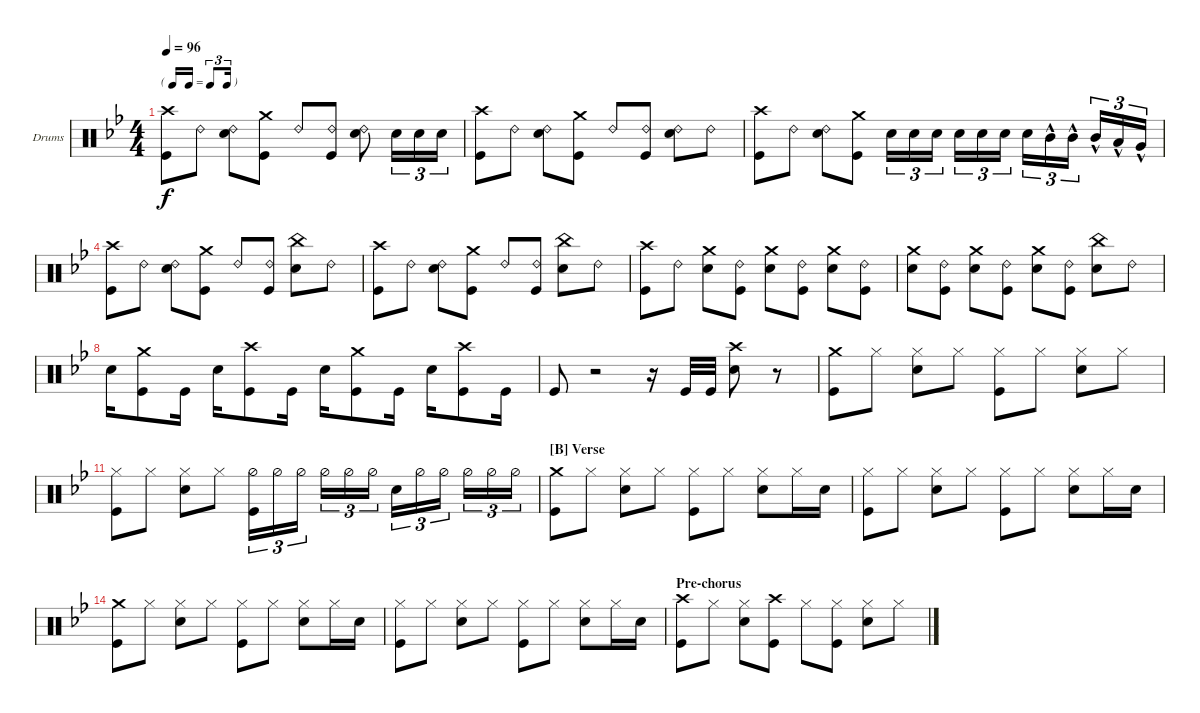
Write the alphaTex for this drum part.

\bracketExtendMode nobrackets
\firstSystemTrackNameOrientation horizontal
\otherSystemsTrackNameOrientation horizontal
\defaultBarNumberDisplay FirstOfSystem
\track ("Randy Castillo" "Drums") {instrument percussion}
\staff {score}
\articulation defaults
\ts (4 4)
\tf triplet16th
\tempo 96
\clef neutral
\scale
0.501966
\ks bb
("Kick (hit)" "Crash high (hit)").8{dy f} "Ride (bell) 2".8 ("Snare (hit) 2" "Ride (bell) 2").8 ("Kick (hit)" "Crash medium (hit)").8 "Ride (bell) 2".8 ("Kick (hit)" "Ride (bell) 2").8 ("Snare (hit) 2" "Ride (bell) 2").8 "Snare (hit) 2".16{tu (3 2)} "Snare (hit) 2".16{tu (3 2)} "Snare (hit) 2".16{tu (3 2)} |
\scale
0.502214 ("Kick (hit)" "Crash high (hit)").8 "Ride (bell) 2".8 ("Snare (hit) 2" "Ride (bell) 2").8 ("Kick (hit)" "Crash medium (hit)").8 "Ride (bell) 2".8 ("Kick (hit)" "Ride (bell) 2").8 ("Snare (hit) 2" "Ride (bell) 2").8 "Ride (bell) 2".8 |
\scale
0.495879 ("Kick (hit)" "Crash high (hit)").8 "Ride (bell) 2".8 ("Snare (hit) 2" "Ride (bell) 2").8 ("Kick (hit)" "Crash medium (hit)").8 "Snare (hit) 2".16{tu (3 2)} "Snare (hit) 2".16{tu (3 2)} "Snare (hit) 2".16{tu (3 2)} "Snare (hit) 2".16{tu (3 2)} "Snare (hit) 2".16{tu (3 2)} "Snare (hit) 2".16{tu (3 2)} "Snare (hit) 2".16{tu (3 2)} "Mid Tom (hit)"{hac}.16{tu (3 2)} "Mid Tom (hit)"{hac}.16{tu (3 2)} "Mid Tom (hit)"{hac}.16{tu (3 2)} "Low Tom (hit)"{hac}.16{tu (3 2)} "Very Low Tom (hit)"{hac}.16{tu (3 2)} |
("Kick (hit)" "Crash high (hit)").8 "Ride (bell) 2".8 ("Snare (hit) 2" "Ride (bell) 2").8 ("Kick (hit)" "Crash medium (hit)").8 "Ride (bell) 2".8 ("Kick (hit)" "Ride (bell) 2").8 ("Snare (hit) 2" "China (hit)").8 "Ride (bell) 2".8 |
("Kick (hit)" "Crash high (hit)").8 "Ride (bell) 2".8 ("Snare (hit) 2" "Ride (bell) 2").8 ("Kick (hit)" "Crash medium (hit)").8 "Ride (bell) 2".8 ("Kick (hit)" "Ride (bell) 2").8 ("Snare (hit) 2" "China (hit)").8 "Ride (bell) 2".8 |
("Kick (hit)" "Crash high (hit)").8 "Ride (bell) 2".8 ("Snare (hit) 2" "Crash medium (hit)").8 ("Kick (hit)" "Ride (bell) 2").8 ("Snare (hit) 2" "Crash medium (hit)").8 ("Kick (hit)" "Ride (bell) 2").8 ("Snare (hit) 2" "Crash medium (hit)").8 ("Ride (bell) 2" "Kick (hit)").8 |
("Snare (hit) 2" "Crash medium (hit)").8 ("Kick (hit)" "Ride (bell) 2").8 ("Snare (hit) 2" "Crash medium (hit)").8 ("Kick (hit)" "Ride (bell) 2").8 ("Snare (hit) 2" "Crash medium (hit)").8 ("Ride (bell) 2" "Kick (hit)").8 ("Snare (hit) 2" "China (hit)").8 "Ride (bell) 2".8 |
\scale
0.500075 "Snare (hit) 2".16 ("Kick (hit)" "Crash medium (hit)").8 "Kick (hit)".16 "Snare (hit) 2".16 ("Kick (hit)" "Crash high (hit)").8 "Kick (hit)".16 "Snare (hit) 2".16 ("Kick (hit)" "Crash medium (hit)").8 "Kick (hit)".16 "Snare (hit) 2".16 ("Kick (hit)" "Crash high (hit)").8 "Kick (hit)".16 |
\scale
0.499709 "Kick (hit)".8 r.2 r.16 "Kick (hit)".32 "Kick (hit)".32 ("Snare (hit) 2" "Crash high (hit)").8 r.8 |
\scale
0.502138 ("Kick (hit)" "Crash medium (hit)").8 "Hi-Hat (closed)".8 ("Hi-Hat (closed)" "Snare (hit) 2").8 "Hi-Hat (closed)".8 ("Hi-Hat (closed)" "Kick (hit)").8 "Hi-Hat (closed)".8 ("Hi-Hat (closed)" "Snare (hit) 2").8 "Hi-Hat (closed)".8 |
\scale
0.498074 ("Kick (hit)" "Hi-Hat (closed)").8 "Hi-Hat (closed)".8 ("Hi-Hat (closed)" "Snare (hit) 2").8 "Hi-Hat (closed)".8 ("Hi-Hat (half)" "Kick (hit)").16{tu (3 2)} "Hi-Hat (half)".16{tu (3 2)} "Hi-Hat (half)".16{tu (3 2)} "Hi-Hat (half)".16{tu (3 2)} "Hi-Hat (half)".16{tu (3 2)} "Hi-Hat (half)".16{tu (3 2)} "Snare (hit) 2".16{tu (3 2)} "Hi-Hat (half)".16{tu (3 2)} "Hi-Hat (half)".16{tu (3 2)} "Hi-Hat (half)".16{tu (3 2)} "Hi-Hat (half)".16{tu (3 2)} "Hi-Hat (half)".16{tu (3 2)} |
\section ("B" "Verse")
\scale
0.501808 ("Kick (hit)" "Crash medium (hit)").8 "Hi-Hat (closed)".8 ("Hi-Hat (closed)" "Snare (hit) 2").8 "Hi-Hat (closed)".8 ("Hi-Hat (closed)" "Kick (hit)").8 "Hi-Hat (closed)".8 ("Hi-Hat (closed)" "Snare (hit) 2").8 "Hi-Hat (closed)".16 "Snare (hit) 2".16 |
\scale
0.497245 ("Kick (hit)" "Hi-Hat (closed)").8 "Hi-Hat (closed)".8 ("Hi-Hat (closed)" "Snare (hit) 2").8 "Hi-Hat (closed)".8 ("Hi-Hat (closed)" "Kick (hit)").8 "Hi-Hat (closed)".8 ("Hi-Hat (closed)" "Snare (hit) 2").8 "Hi-Hat (closed)".16 "Snare (hit) 2".16 |
("Kick (hit)" "Crash medium (hit)").8 "Hi-Hat (closed)".8 ("Hi-Hat (closed)" "Snare (hit) 2").8 "Hi-Hat (closed)".8 ("Hi-Hat (closed)" "Kick (hit)").8 "Hi-Hat (closed)".8 ("Hi-Hat (closed)" "Snare (hit) 2").8 "Hi-Hat (closed)".16 "Snare (hit) 2".16 |
("Kick (hit)" "Hi-Hat (closed)").8 "Hi-Hat (closed)".8 ("Hi-Hat (closed)" "Snare (hit) 2").8 "Hi-Hat (closed)".8 ("Hi-Hat (closed)" "Kick (hit)").8 "Hi-Hat (closed)".8 ("Hi-Hat (closed)" "Snare (hit) 2").8 "Hi-Hat (closed)".16 "Snare (hit) 2".16 |
\section ("" "Pre-chorus")
("Kick (hit)" "Crash high (hit)").8 "Hi-Hat (closed)".8 ("Hi-Hat (closed)" "Snare (hit) 2").8 ("Kick (hit)" "Crash high (hit)").8 "Hi-Hat (closed)".8 ("Hi-Hat (closed)" "Kick (hit)").8 ("Hi-Hat (closed)" "Snare (hit) 2").8 "Hi-Hat (closed)".8
